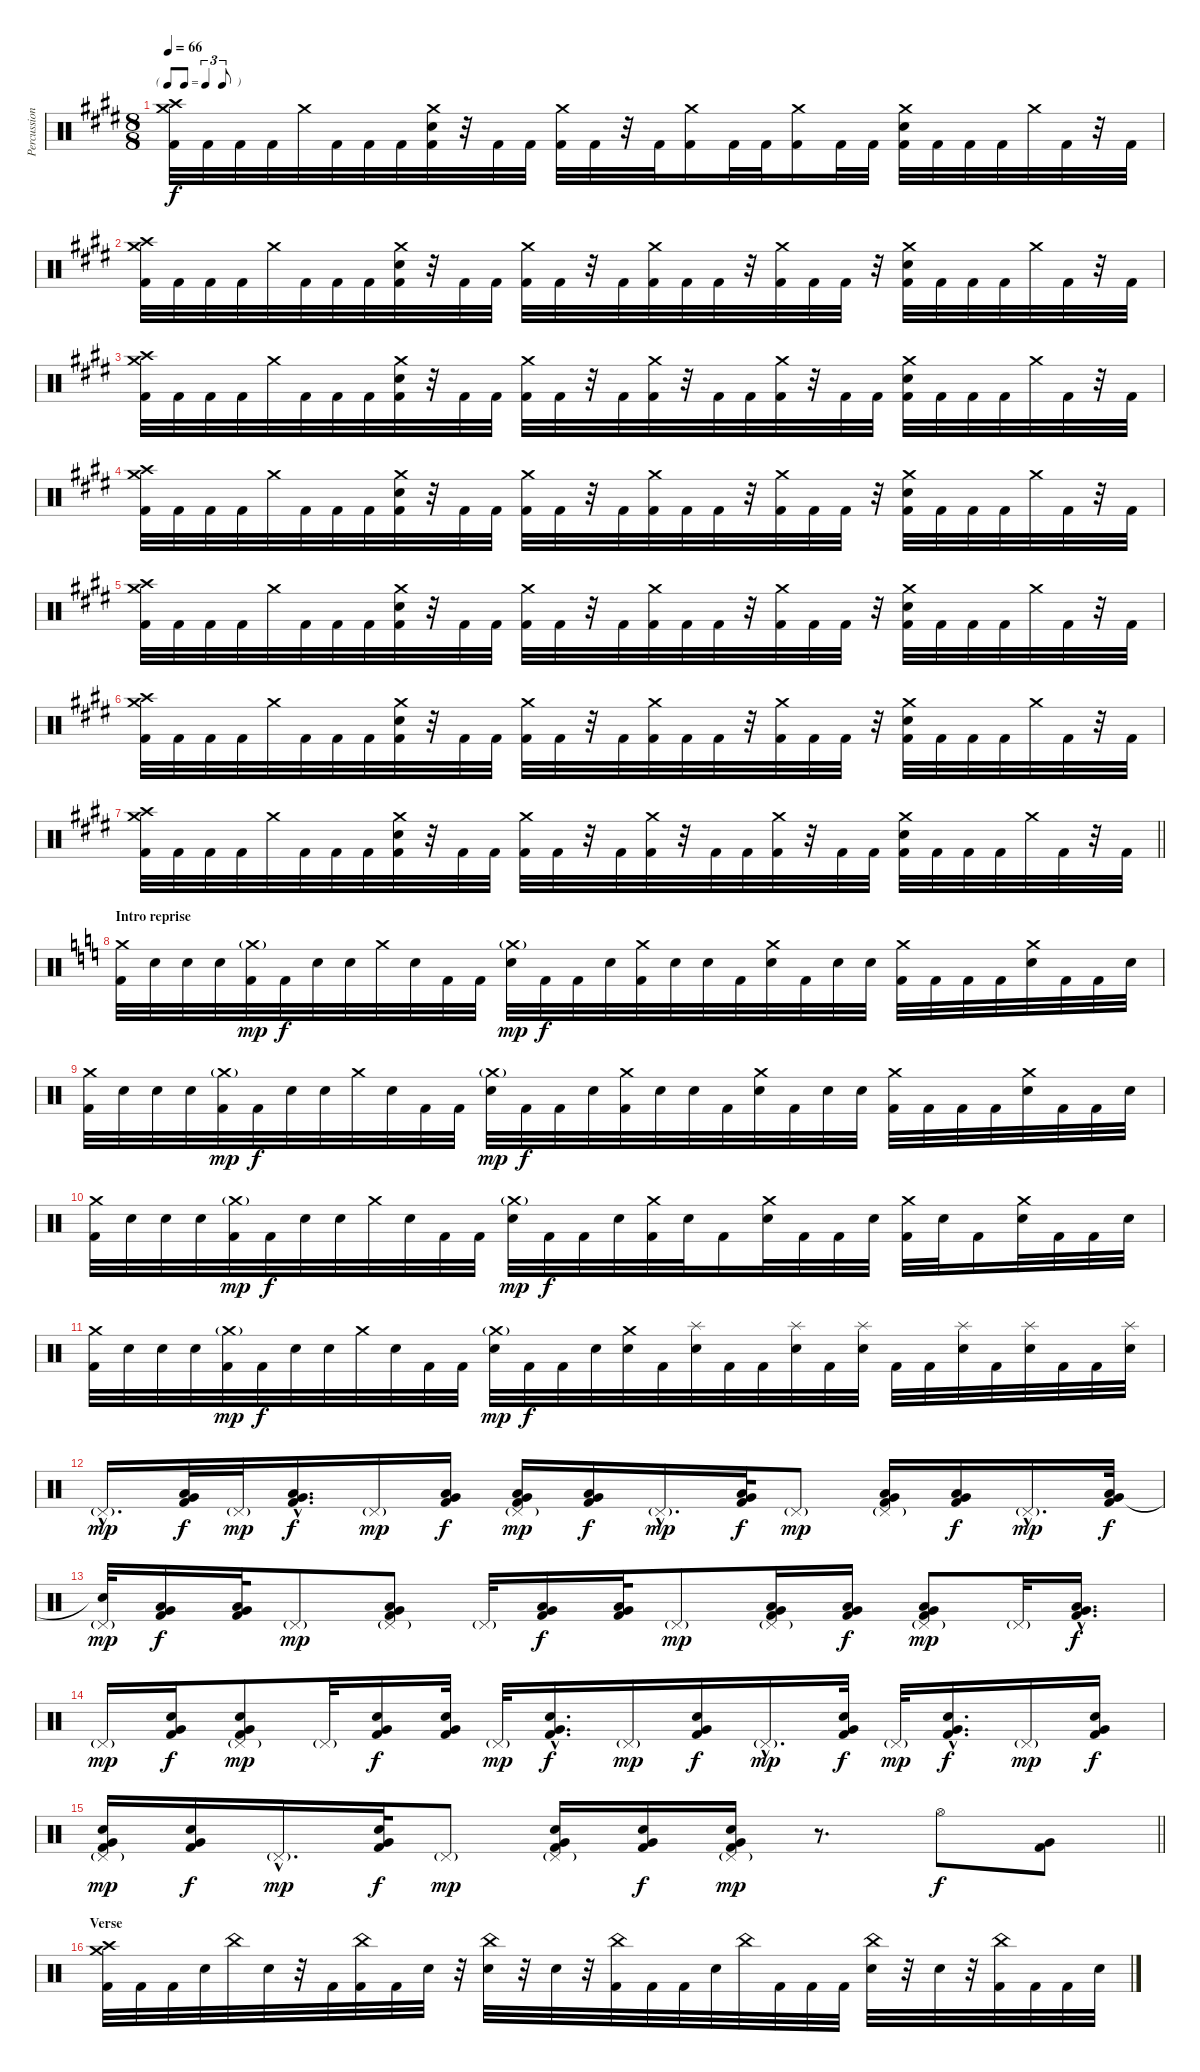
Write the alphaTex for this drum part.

\track ("Percussion" "Percussion") {instrument percussion}
\staff {score}
\articulation defaults
\ts (8 8)
\tf triplet8th
\tempo 66
\clef neutral
\ks c#minor
("Crash medium (hit)" "Crash high (hit)" "Kick (hit) 2").32{dy f} "Kick (hit) 2".32 "Kick (hit) 2".32 "Kick (hit) 2".32 "Crash medium (hit)".32 "Kick (hit) 2".32 "Kick (hit) 2".32 "Kick (hit) 2".32 ("Crash medium (hit)" "Electric Snare (hit)" "Kick (hit) 2").32 r.32 "Kick (hit) 2".32 "Kick (hit) 2".32 ("Crash medium (hit)" "Kick (hit) 2").32 "Kick (hit) 2".32 r.32 "Kick (hit) 2".32 ("Crash medium (hit)" "Kick (hit) 2").16 "Kick (hit) 2".32 "Kick (hit) 2".32 ("Crash medium (hit)" "Kick (hit) 2").16 "Kick (hit) 2".32 "Kick (hit) 2".32 ("Crash medium (hit)" "Electric Snare (hit)" "Kick (hit) 2").32 "Kick (hit) 2".32 "Kick (hit) 2".32 "Kick (hit) 2".32 "Crash medium (hit)".32 "Kick (hit) 2".32 r.32 "Kick (hit) 2".32 |
("Crash medium (hit)" "Crash high (hit)" "Kick (hit) 2").32 "Kick (hit) 2".32 "Kick (hit) 2".32 "Kick (hit) 2".32 "Crash medium (hit)".32 "Kick (hit) 2".32 "Kick (hit) 2".32 "Kick (hit) 2".32 ("Crash medium (hit)" "Electric Snare (hit)" "Kick (hit) 2").32 r.32 "Kick (hit) 2".32 "Kick (hit) 2".32 ("Crash medium (hit)" "Kick (hit) 2").32 "Kick (hit) 2".32 r.32 "Kick (hit) 2".32 ("Crash medium (hit)" "Kick (hit) 2").32 "Kick (hit) 2".32 "Kick (hit) 2".32 r.32 ("Crash medium (hit)" "Kick (hit) 2").32 "Kick (hit) 2".32 "Kick (hit) 2".32 r.32 ("Crash medium (hit)" "Electric Snare (hit)" "Kick (hit) 2").32 "Kick (hit) 2".32 "Kick (hit) 2".32 "Kick (hit) 2".32 "Crash medium (hit)".32 "Kick (hit) 2".32 r.32 "Kick (hit) 2".32 |
("Crash medium (hit)" "Crash high (hit)" "Kick (hit) 2").32 "Kick (hit) 2".32 "Kick (hit) 2".32 "Kick (hit) 2".32 "Crash medium (hit)".32 "Kick (hit) 2".32 "Kick (hit) 2".32 "Kick (hit) 2".32 ("Crash medium (hit)" "Electric Snare (hit)" "Kick (hit) 2").32 r.32 "Kick (hit) 2".32 "Kick (hit) 2".32 ("Crash medium (hit)" "Kick (hit) 2").32 "Kick (hit) 2".32 r.32 "Kick (hit) 2".32 ("Crash medium (hit)" "Kick (hit) 2").32 r.32 "Kick (hit) 2".32 "Kick (hit) 2".32 ("Crash medium (hit)" "Kick (hit) 2").32 r.32 "Kick (hit) 2".32 "Kick (hit) 2".32 ("Crash medium (hit)" "Electric Snare (hit)" "Kick (hit) 2").32 "Kick (hit) 2".32 "Kick (hit) 2".32 "Kick (hit) 2".32 "Crash medium (hit)".32 "Kick (hit) 2".32 r.32 "Kick (hit) 2".32 |
("Crash medium (hit)" "Crash high (hit)" "Kick (hit) 2").32 "Kick (hit) 2".32 "Kick (hit) 2".32 "Kick (hit) 2".32 "Crash medium (hit)".32 "Kick (hit) 2".32 "Kick (hit) 2".32 "Kick (hit) 2".32 ("Crash medium (hit)" "Electric Snare (hit)" "Kick (hit) 2").32 r.32 "Kick (hit) 2".32 "Kick (hit) 2".32 ("Crash medium (hit)" "Kick (hit) 2").32 "Kick (hit) 2".32 r.32 "Kick (hit) 2".32 ("Crash medium (hit)" "Kick (hit) 2").32 "Kick (hit) 2".32 "Kick (hit) 2".32 r.32 ("Crash medium (hit)" "Kick (hit) 2").32 "Kick (hit) 2".32 "Kick (hit) 2".32 r.32 ("Crash medium (hit)" "Electric Snare (hit)" "Kick (hit) 2").32 "Kick (hit) 2".32 "Kick (hit) 2".32 "Kick (hit) 2".32 "Crash medium (hit)".32 "Kick (hit) 2".32 r.32 "Kick (hit) 2".32 |
("Crash medium (hit)" "Crash high (hit)" "Kick (hit) 2").32 "Kick (hit) 2".32 "Kick (hit) 2".32 "Kick (hit) 2".32 "Crash medium (hit)".32 "Kick (hit) 2".32 "Kick (hit) 2".32 "Kick (hit) 2".32 ("Crash medium (hit)" "Electric Snare (hit)" "Kick (hit) 2").32 r.32 "Kick (hit) 2".32 "Kick (hit) 2".32 ("Crash medium (hit)" "Kick (hit) 2").32 "Kick (hit) 2".32 r.32 "Kick (hit) 2".32 ("Crash medium (hit)" "Kick (hit) 2").32 "Kick (hit) 2".32 "Kick (hit) 2".32 r.32 ("Crash medium (hit)" "Kick (hit) 2").32 "Kick (hit) 2".32 "Kick (hit) 2".32 r.32 ("Crash medium (hit)" "Electric Snare (hit)" "Kick (hit) 2").32 "Kick (hit) 2".32 "Kick (hit) 2".32 "Kick (hit) 2".32 "Crash medium (hit)".32 "Kick (hit) 2".32 r.32 "Kick (hit) 2".32 |
("Crash medium (hit)" "Crash high (hit)" "Kick (hit) 2").32 "Kick (hit) 2".32 "Kick (hit) 2".32 "Kick (hit) 2".32 "Crash medium (hit)".32 "Kick (hit) 2".32 "Kick (hit) 2".32 "Kick (hit) 2".32 ("Crash medium (hit)" "Electric Snare (hit)" "Kick (hit) 2").32 r.32 "Kick (hit) 2".32 "Kick (hit) 2".32 ("Crash medium (hit)" "Kick (hit) 2").32 "Kick (hit) 2".32 r.32 "Kick (hit) 2".32 ("Crash medium (hit)" "Kick (hit) 2").32 "Kick (hit) 2".32 "Kick (hit) 2".32 r.32 ("Crash medium (hit)" "Kick (hit) 2").32 "Kick (hit) 2".32 "Kick (hit) 2".32 r.32 ("Crash medium (hit)" "Electric Snare (hit)" "Kick (hit) 2").32 "Kick (hit) 2".32 "Kick (hit) 2".32 "Kick (hit) 2".32 "Crash medium (hit)".32 "Kick (hit) 2".32 r.32 "Kick (hit) 2".32 |
\barLineRight lightlight
("Crash medium (hit)" "Crash high (hit)" "Kick (hit) 2").32 "Kick (hit) 2".32 "Kick (hit) 2".32 "Kick (hit) 2".32 "Crash medium (hit)".32 "Kick (hit) 2".32 "Kick (hit) 2".32 "Kick (hit) 2".32 ("Crash medium (hit)" "Electric Snare (hit)" "Kick (hit) 2").32 r.32 "Kick (hit) 2".32 "Kick (hit) 2".32 ("Crash medium (hit)" "Kick (hit) 2").32 "Kick (hit) 2".32 r.32 "Kick (hit) 2".32 ("Crash medium (hit)" "Kick (hit) 2").32 r.32 "Kick (hit) 2".32 "Kick (hit) 2".32 ("Crash medium (hit)" "Kick (hit) 2").32 r.32 "Kick (hit) 2".32 "Kick (hit) 2".32 ("Crash medium (hit)" "Electric Snare (hit)" "Kick (hit) 2").32 "Kick (hit) 2".32 "Kick (hit) 2".32 "Kick (hit) 2".32 "Crash medium (hit)".32 "Kick (hit) 2".32 r.32 "Kick (hit) 2".32 |
\section ("" "Intro reprise")
\ks aminor
("Crash medium (hit)" "Kick (hit) 2").32 "Electric Snare (hit)".32 "Electric Snare (hit)".32 "Electric Snare (hit)".32 ("Crash medium (hit)"{g} "Kick (hit) 2").32{dy mp} "Kick (hit) 2".32{dy f} "Electric Snare (hit)".32 "Electric Snare (hit)".32 "Crash medium (hit)".32 "Electric Snare (hit)".32 "Kick (hit) 2".32 "Kick (hit) 2".32 ("Crash medium (hit)"{g} "Electric Snare (hit)").32{dy mp} "Kick (hit) 2".32{dy f} "Kick (hit) 2".32 "Electric Snare (hit)".32 ("Crash medium (hit)" "Kick (hit) 2").32 "Electric Snare (hit)".32 "Electric Snare (hit)".32 "Kick (hit) 2".32 ("Crash medium (hit)" "Electric Snare (hit)").32 "Kick (hit) 2".32 "Electric Snare (hit)".32 "Electric Snare (hit)".32 ("Crash medium (hit)" "Kick (hit) 2").32 "Kick (hit) 2".32 "Kick (hit) 2".32 "Kick (hit) 2".32 ("Crash medium (hit)" "Electric Snare (hit)").32 "Kick (hit) 2".32 "Kick (hit) 2".32 "Electric Snare (hit)".32 |
("Crash medium (hit)" "Kick (hit) 2").32 "Electric Snare (hit)".32 "Electric Snare (hit)".32 "Electric Snare (hit)".32 ("Crash medium (hit)"{g} "Kick (hit) 2").32{dy mp} "Kick (hit) 2".32{dy f} "Electric Snare (hit)".32 "Electric Snare (hit)".32 "Crash medium (hit)".32 "Electric Snare (hit)".32 "Kick (hit) 2".32 "Kick (hit) 2".32 ("Crash medium (hit)"{g} "Electric Snare (hit)").32{dy mp} "Kick (hit) 2".32{dy f} "Kick (hit) 2".32 "Electric Snare (hit)".32 ("Crash medium (hit)" "Kick (hit) 2").32 "Electric Snare (hit)".32 "Electric Snare (hit)".32 "Kick (hit) 2".32 ("Crash medium (hit)" "Electric Snare (hit)").32 "Kick (hit) 2".32 "Electric Snare (hit)".32 "Electric Snare (hit)".32 ("Crash medium (hit)" "Kick (hit) 2").32 "Kick (hit) 2".32 "Kick (hit) 2".32 "Kick (hit) 2".32 ("Crash medium (hit)" "Electric Snare (hit)").32 "Kick (hit) 2".32 "Kick (hit) 2".32 "Electric Snare (hit)".32 |
("Crash medium (hit)" "Kick (hit) 2").32 "Electric Snare (hit)".32 "Electric Snare (hit)".32 "Electric Snare (hit)".32 ("Crash medium (hit)"{g} "Kick (hit) 2").32{dy mp} "Kick (hit) 2".32{dy f} "Electric Snare (hit)".32 "Electric Snare (hit)".32 "Crash medium (hit)".32 "Electric Snare (hit)".32 "Kick (hit) 2".32 "Kick (hit) 2".32 ("Crash medium (hit)"{g} "Electric Snare (hit)").32{dy mp} "Kick (hit) 2".32{dy f} "Kick (hit) 2".32 "Electric Snare (hit)".32 ("Crash medium (hit)" "Kick (hit) 2").32 "Electric Snare (hit)".32 "Kick (hit) 2".16 ("Crash medium (hit)" "Electric Snare (hit)").32 "Kick (hit) 2".32 "Kick (hit) 2".32 "Electric Snare (hit)".32 ("Crash medium (hit)" "Kick (hit) 2").32 "Electric Snare (hit)".32 "Kick (hit) 2".16 ("Crash medium (hit)" "Electric Snare (hit)").32 "Kick (hit) 2".32 "Kick (hit) 2".32 "Electric Snare (hit)".32 |
("Crash medium (hit)" "Kick (hit) 2").32 "Electric Snare (hit)".32 "Electric Snare (hit)".32 "Electric Snare (hit)".32 ("Crash medium (hit)"{g} "Kick (hit) 2").32{dy mp} "Kick (hit) 2".32{dy f} "Electric Snare (hit)".32 "Electric Snare (hit)".32 "Crash medium (hit)".32 "Electric Snare (hit)".32 "Kick (hit) 2".32 "Kick (hit) 2".32 ("Crash medium (hit)"{g} "Electric Snare (hit)").32{dy mp} "Kick (hit) 2".32{dy f} "Kick (hit) 2".32 "Electric Snare (hit)".32 ("Crash medium (hit)" "Electric Snare (hit)").32 "Kick (hit) 2".32 ("Splash (hit)" "Electric Snare (hit)").32 "Kick (hit) 2".32 "Kick (hit) 2".32 ("Splash (hit)" "Electric Snare (hit)").32 "Kick (hit) 2".32 ("Splash (hit)" "Electric Snare (hit)").32 "Kick (hit) 2".32 "Kick (hit) 2".32 ("Splash (hit)" "Electric Snare (hit)").32 "Kick (hit) 2".32 ("Splash (hit)" "Electric Snare (hit)").32 "Kick (hit) 2".32 "Kick (hit) 2".32 ("Splash (hit)" "Electric Snare (hit)").32 |
"Pedal Hi-Hat (hit)"{g hac}.16{d dy mp} ("Low Tom (hit)" "Very Low Tom (hit)" "Kick (hit) 2").32{dy f} "Pedal Hi-Hat (hit)"{g}.32{dy mp} ("Low Tom (hit)"{hac} "Very Low Tom (hit)"{hac} "Kick (hit) 2"{hac}).16{d dy f} "Pedal Hi-Hat (hit)"{g}.16{dy mp} ("Low Tom (hit)" "Very Low Tom (hit)" "Kick (hit) 2").16{dy f} ("Pedal Hi-Hat (hit)"{g} "Low Tom (hit)" "Very Low Tom (hit)" "Kick (hit) 2").16{dy mp} ("Low Tom (hit)" "Very Low Tom (hit)" "Kick (hit) 2").16{dy f} "Pedal Hi-Hat (hit)"{g hac}.16{d dy mp} ("Low Tom (hit)" "Very Low Tom (hit)" "Kick (hit) 2").32{dy f} "Pedal Hi-Hat (hit)"{g}.8{dy mp} ("Pedal Hi-Hat (hit)"{g} "Low Tom (hit)" "Very Low Tom (hit)" "Kick (hit) 2").16 ("Low Tom (hit)" "Very Low Tom (hit)" "Kick (hit) 2").16{dy f} "Pedal Hi-Hat (hit)"{g hac}.16{d dy mp} ("Low Tom (hit)" "Very Low Tom (hit)" "Kick (hit) 2").32{dy f} |
("Pedal Hi-Hat (hit)"{g} "Snare (hit)"{t}).32{dy mp} ("Low Tom (hit)" "Very Low Tom (hit)" "Kick (hit) 2").16{dy f} ("Low Tom (hit)" "Very Low Tom (hit)" "Kick (hit) 2").32 "Pedal Hi-Hat (hit)"{g}.8{dy mp} ("Pedal Hi-Hat (hit)"{g} "Low Tom (hit)" "Very Low Tom (hit)" "Kick (hit) 2").8 "Pedal Hi-Hat (hit)"{g}.32 ("Low Tom (hit)" "Very Low Tom (hit)" "Kick (hit) 2").16{dy f} ("Low Tom (hit)" "Very Low Tom (hit)" "Kick (hit) 2").32 "Pedal Hi-Hat (hit)"{g}.8{dy mp} ("Pedal Hi-Hat (hit)"{g} "Low Tom (hit)" "Very Low Tom (hit)" "Kick (hit) 2").16 ("Low Tom (hit)" "Very Low Tom (hit)" "Kick (hit) 2").16{dy f} ("Pedal Hi-Hat (hit)"{g} "Low Tom (hit)" "Very Low Tom (hit)" "Kick (hit) 2").8{dy mp} "Pedal Hi-Hat (hit)"{g}.32 ("Low Tom (hit)"{hac} "Very Low Tom (hit)"{hac} "Kick (hit) 2"{hac}).16{d dy f} |
"Pedal Hi-Hat (hit)"{g}.16{dy mp} ("Electric Snare (hit)" "Very Low Tom (hit)" "Kick (hit) 2").16{dy f} ("Pedal Hi-Hat (hit)"{g} "Electric Snare (hit)" "Very Low Tom (hit)" "Kick (hit) 2").8{dy mp} "Pedal Hi-Hat (hit)"{g}.32 ("Electric Snare (hit)" "Very Low Tom (hit)" "Kick (hit) 2").16{dy f} ("Electric Snare (hit)" "Very Low Tom (hit)" "Kick (hit) 2").32 "Pedal Hi-Hat (hit)"{g}.32{dy mp} ("Electric Snare (hit)"{hac} "Very Low Tom (hit)"{hac} "Kick (hit) 2"{hac}).16{d dy f} "Pedal Hi-Hat (hit)"{g}.16{dy mp} ("Electric Snare (hit)" "Very Low Tom (hit)" "Kick (hit) 2").16{dy f} "Pedal Hi-Hat (hit)"{g hac}.16{d dy mp} ("Electric Snare (hit)" "Very Low Tom (hit)" "Kick (hit) 2").32{dy f} "Pedal Hi-Hat (hit)"{g}.32{dy mp} ("Electric Snare (hit)"{hac} "Very Low Tom (hit)"{hac} "Kick (hit) 2"{hac}).16{d dy f} "Pedal Hi-Hat (hit)"{g}.16{dy mp} ("Electric Snare (hit)" "Very Low Tom (hit)" "Kick (hit) 2").16{dy f} |
\barLineRight lightlight
("Pedal Hi-Hat (hit)"{g} "Electric Snare (hit)" "Very Low Tom (hit)" "Kick (hit) 2").16{dy mp} ("Electric Snare (hit)" "Very Low Tom (hit)" "Kick (hit) 2").16{dy f} "Pedal Hi-Hat (hit)"{g hac}.16{d dy mp} ("Electric Snare (hit)" "Very Low Tom (hit)" "Kick (hit) 2").32{dy f} "Pedal Hi-Hat (hit)"{g}.8{dy mp} ("Pedal Hi-Hat (hit)"{g} "Electric Snare (hit)" "Very Low Tom (hit)" "Kick (hit) 2").16 ("Electric Snare (hit)" "Very Low Tom (hit)" "Kick (hit) 2").16{dy f} ("Pedal Hi-Hat (hit)"{g} "Electric Snare (hit)" "Very Low Tom (hit)" "Kick (hit) 2").16{dy mp} r.8{d} "Hi-Hat (open)".8{dy f} ("Very Low Tom (hit)" "Kick (hit) 2").8 |
\section ("" "Verse")
("Crash medium (hit)" "Crash high (hit)" "Kick (hit) 2").32 "Kick (hit) 2".32 "Kick (hit) 2".32 "Electric Snare (hit)".32 "China (hit)".32 "Electric Snare (hit)".32 r.32 "Kick (hit) 2".32 ("China (hit)" "Kick (hit) 2").32 "Kick (hit) 2".32 "Electric Snare (hit)".32 r.32 ("China (hit)" "Electric Snare (hit)").32 r.32 "Electric Snare (hit)".32 r.32 ("China (hit)" "Kick (hit) 2").32 "Kick (hit) 2".32 "Kick (hit) 2".32 "Electric Snare (hit)".32 "China (hit)".32 "Kick (hit) 2".32 "Kick (hit) 2".32 "Kick (hit) 2".32 ("China (hit)" "Electric Snare (hit)").32 r.32 "Electric Snare (hit)".32 r.32 ("China (hit)" "Kick (hit) 2").32 "Kick (hit) 2".32 "Kick (hit) 2".32 "Electric Snare (hit)".32
